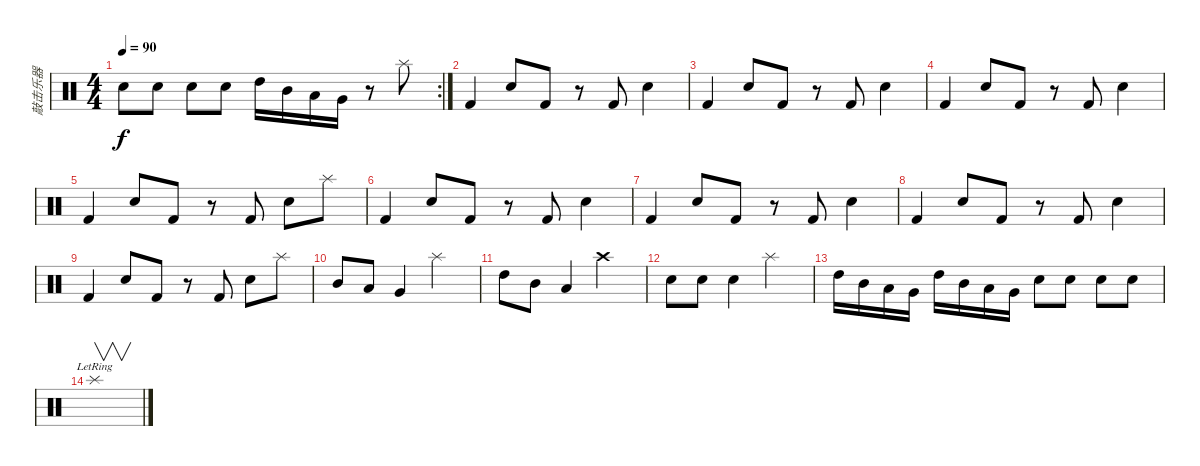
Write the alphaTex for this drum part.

\track ("敲击乐器" "敲击乐器") {instrument percussion}
\staff {score}
\articulation defaults
\rc 2
\ts (4 4)
\tempo 90
\clef neutral
\ks c "Snare (hit) 2".8{dy f} "Snare (hit) 2".8 "Snare (hit) 2".8 "Snare (hit) 2".8 "High Tom (hit)".16 "Mid Tom (hit)".16 "Low Tom (hit)".16 "Very Low Tom (hit)".16
r.8 "Splash (hit)".8 |
"Kick (hit) 2".4 "Snare (hit) 2".8 "Kick (hit) 2".8 r.8 "Kick (hit) 2".8 "Snare (hit) 2".4 |
"Kick (hit) 2".4 "Snare (hit) 2".8 "Kick (hit) 2".8 r.8 "Kick (hit) 2".8 "Snare (hit) 2".4 |
"Kick (hit) 2".4 "Snare (hit) 2".8 "Kick (hit) 2".8 r.8 "Kick (hit) 2".8 "Snare (hit) 2".4 |
"Kick (hit) 2".4 "Snare (hit) 2".8 "Kick (hit) 2".8 r.8 "Kick (hit) 2".8 "Snare (hit) 2".8 "Splash (hit)".8 |
"Kick (hit) 2".4 "Snare (hit) 2".8 "Kick (hit) 2".8 r.8 "Kick (hit) 2".8 "Snare (hit) 2".4 |
"Kick (hit) 2".4 "Snare (hit) 2".8 "Kick (hit) 2".8 r.8 "Kick (hit) 2".8 "Snare (hit) 2".4 |
"Kick (hit) 2".4 "Snare (hit) 2".8 "Kick (hit) 2".8 r.8 "Kick (hit) 2".8 "Snare (hit) 2".4 |
"Kick (hit) 2".4 "Snare (hit) 2".8 "Kick (hit) 2".8 r.8 "Kick (hit) 2".8 "Snare (hit) 2".8 "Splash (hit)".8 |
"Mid Tom (hit)".8 "Low Tom (hit)".8 "Very Low Tom (hit)".4 "Splash (hit)".2 |
"High Tom (hit)".8 "Mid Tom (hit)".8 "Low Tom (hit)".4 "Crash high (hit)".2 |
"Snare (hit) 2".8 "Snare (hit) 2".8 "Snare (hit) 2".4 "Splash (hit)".2 |
"High Tom (hit)".16 "Mid Tom (hit)".16 "Low Tom (hit)".16 "Very Low Tom (hit)".16 "High Tom (hit)".16 "Mid Tom (hit)".16 "Low Tom (hit)".16 "Very Low Tom (hit)".16 "Snare (hit) 2".8 "Snare (hit) 2".8 "Snare (hit) 2".8 "Snare (hit) 2".8 |
"Splash (hit)"{lr}.1{v}
